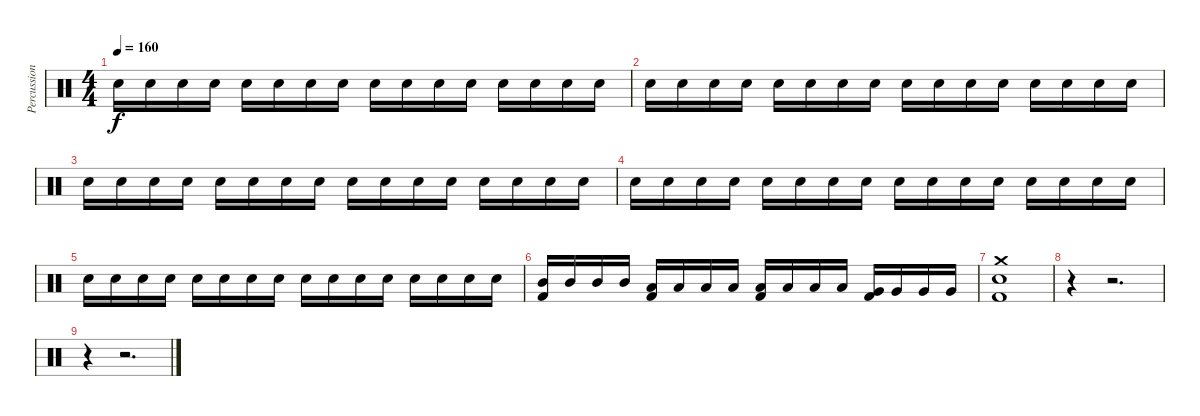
\track ("Percussion" "Percussion") {instrument percussion}
\staff {score}
\articulation defaults
\ts (4 4)
\tempo 160
\clef neutral
\ks c "Electric Snare (hit)".16{dy f} "Electric Snare (hit)".16 "Electric Snare (hit)".16 "Electric Snare (hit)".16 "Electric Snare (hit)".16 "Electric Snare (hit)".16 "Electric Snare (hit)".16 "Electric Snare (hit)".16 "Electric Snare (hit)".16 "Electric Snare (hit)".16 "Electric Snare (hit)".16 "Electric Snare (hit)".16 "Electric Snare (hit)".16 "Electric Snare (hit)".16 "Electric Snare (hit)".16 "Electric Snare (hit)".16
|
"Electric Snare (hit)".16 "Electric Snare (hit)".16 "Electric Snare (hit)".16 "Electric Snare (hit)".16 "Electric Snare (hit)".16 "Electric Snare (hit)".16 "Electric Snare (hit)".16 "Electric Snare (hit)".16 "Electric Snare (hit)".16 "Electric Snare (hit)".16 "Electric Snare (hit)".16 "Electric Snare (hit)".16 "Electric Snare (hit)".16 "Electric Snare (hit)".16 "Electric Snare (hit)".16 "Electric Snare (hit)".16 |
"Electric Snare (hit)".16 "Electric Snare (hit)".16 "Electric Snare (hit)".16 "Electric Snare (hit)".16 "Electric Snare (hit)".16 "Electric Snare (hit)".16 "Electric Snare (hit)".16 "Electric Snare (hit)".16 "Electric Snare (hit)".16 "Electric Snare (hit)".16 "Electric Snare (hit)".16 "Electric Snare (hit)".16 "Electric Snare (hit)".16 "Electric Snare (hit)".16 "Electric Snare (hit)".16 "Electric Snare (hit)".16 |
"Electric Snare (hit)".16 "Electric Snare (hit)".16 "Electric Snare (hit)".16 "Electric Snare (hit)".16 "Electric Snare (hit)".16 "Electric Snare (hit)".16 "Electric Snare (hit)".16 "Electric Snare (hit)".16 "Electric Snare (hit)".16 "Electric Snare (hit)".16 "Electric Snare (hit)".16 "Electric Snare (hit)".16 "Electric Snare (hit)".16 "Electric Snare (hit)".16 "Electric Snare (hit)".16 "Electric Snare (hit)".16 |
"Electric Snare (hit)".16 "Electric Snare (hit)".16 "Electric Snare (hit)".16 "Electric Snare (hit)".16 "Electric Snare (hit)".16 "Electric Snare (hit)".16 "Electric Snare (hit)".16 "Electric Snare (hit)".16 "Electric Snare (hit)".16 "Electric Snare (hit)".16 "Electric Snare (hit)".16 "Electric Snare (hit)".16 "Electric Snare (hit)".16 "Electric Snare (hit)".16 "Electric Snare (hit)".16 "Electric Snare (hit)".16 |
("Mid Tom (hit)" "Kick (hit) 2").16 "Mid Tom (hit)".16 "Mid Tom (hit)".16 "Mid Tom (hit)".16 ("Low Tom (hit)" "Kick (hit) 2").16 "Low Tom (hit)".16 "Low Tom (hit)".16 "Low Tom (hit)".16 ("Low Floor Tom (hit)" "Kick (hit) 2").16 "Low Floor Tom (hit)".16 "Low Floor Tom (hit)".16 "Low Floor Tom (hit)".16 ("Very Low Tom (hit)" "Kick (hit) 2").16 "Very Low Tom (hit)".16 "Very Low Tom (hit)".16 "Very Low Tom (hit)".16 |
("Crash medium (hit)" "Snare (hit) 2" "Kick (hit) 2").1 |
r.4 r.2{d} |
r.4 r.2{d}
